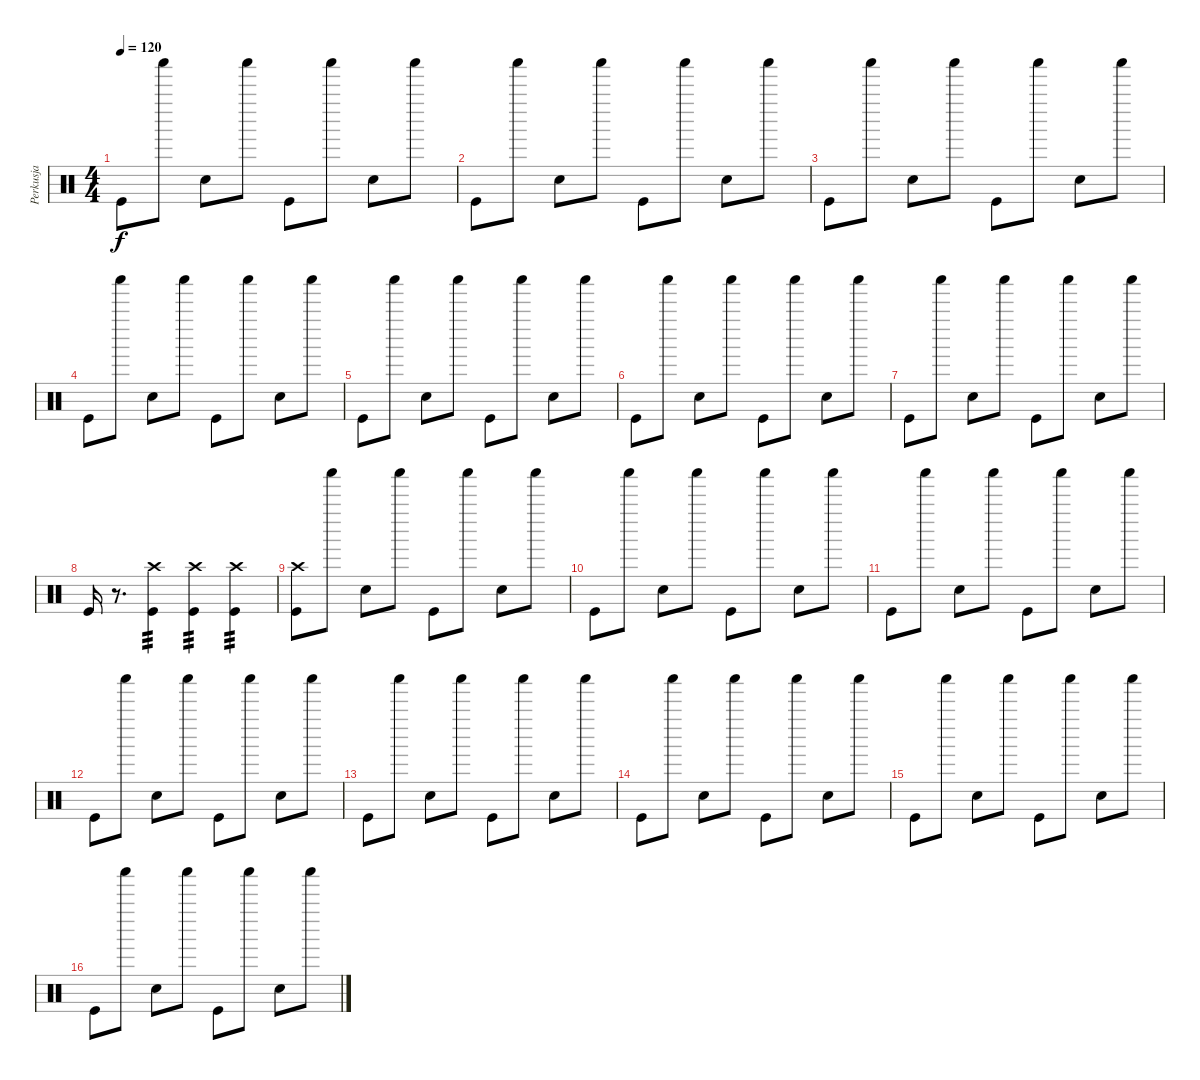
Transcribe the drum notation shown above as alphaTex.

\track ("Perkusja" "Perkusja") {instrument percussion}
\staff {score}
\articulation defaults
\ts (4 4)
\tempo 120
\clef neutral
\ks c "Kick (hit)".8{dy f} "Shaker (hit)".8 "Electric Snare (hit)".8 "Shaker (hit)".8 "Kick (hit)".8 "Shaker (hit)".8 "Electric Snare (hit)".8 "Shaker (hit)".8
|
"Kick (hit)".8 "Shaker (hit)".8 "Electric Snare (hit)".8 "Shaker (hit)".8 "Kick (hit)".8 "Shaker (hit)".8 "Electric Snare (hit)".8 "Shaker (hit)".8 |
"Kick (hit)".8 "Shaker (hit)".8 "Electric Snare (hit)".8 "Shaker (hit)".8 "Kick (hit)".8 "Shaker (hit)".8 "Electric Snare (hit)".8 "Shaker (hit)".8 |
"Kick (hit)".8 "Shaker (hit)".8 "Electric Snare (hit)".8 "Shaker (hit)".8 "Kick (hit)".8 "Shaker (hit)".8 "Electric Snare (hit)".8 "Shaker (hit)".8 |
"Kick (hit)".8 "Shaker (hit)".8 "Electric Snare (hit)".8 "Shaker (hit)".8 "Kick (hit)".8 "Shaker (hit)".8 "Electric Snare (hit)".8 "Shaker (hit)".8 |
"Kick (hit)".8 "Shaker (hit)".8 "Electric Snare (hit)".8 "Shaker (hit)".8 "Kick (hit)".8 "Shaker (hit)".8 "Electric Snare (hit)".8 "Shaker (hit)".8 |
"Kick (hit)".8 "Shaker (hit)".8 "Electric Snare (hit)".8 "Shaker (hit)".8 "Kick (hit)".8 "Shaker (hit)".8 "Electric Snare (hit)".8 "Shaker (hit)".8 |
"Kick (hit)".16 r.8{d} ("Crash high (hit)" "Kick (hit)").4{tp 3} ("Crash high (hit)" "Kick (hit)").4{tp 3} ("Crash high (hit)" "Kick (hit)").4{tp 3} |
("Crash high (hit)" "Kick (hit)").8 "Shaker (hit)".8 "Electric Snare (hit)".8 "Shaker (hit)".8 "Kick (hit)".8 "Shaker (hit)".8 "Electric Snare (hit)".8 "Shaker (hit)".8 |
"Kick (hit)".8 "Shaker (hit)".8 "Electric Snare (hit)".8 "Shaker (hit)".8 "Kick (hit)".8 "Shaker (hit)".8 "Electric Snare (hit)".8 "Shaker (hit)".8 |
"Kick (hit)".8 "Shaker (hit)".8 "Electric Snare (hit)".8 "Shaker (hit)".8 "Kick (hit)".8 "Shaker (hit)".8 "Electric Snare (hit)".8 "Shaker (hit)".8 |
"Kick (hit)".8 "Shaker (hit)".8 "Electric Snare (hit)".8 "Shaker (hit)".8 "Kick (hit)".8 "Shaker (hit)".8 "Electric Snare (hit)".8 "Shaker (hit)".8 |
"Kick (hit)".8 "Shaker (hit)".8 "Electric Snare (hit)".8 "Shaker (hit)".8 "Kick (hit)".8 "Shaker (hit)".8 "Electric Snare (hit)".8 "Shaker (hit)".8 |
"Kick (hit)".8 "Shaker (hit)".8 "Electric Snare (hit)".8 "Shaker (hit)".8 "Kick (hit)".8 "Shaker (hit)".8 "Electric Snare (hit)".8 "Shaker (hit)".8 |
"Kick (hit)".8 "Shaker (hit)".8 "Electric Snare (hit)".8 "Shaker (hit)".8 "Kick (hit)".8 "Shaker (hit)".8 "Electric Snare (hit)".8 "Shaker (hit)".8 |
"Kick (hit)".8 "Shaker (hit)".8 "Electric Snare (hit)".8 "Shaker (hit)".8 "Kick (hit)".8 "Shaker (hit)".8 "Electric Snare (hit)".8 "Shaker (hit)".8
